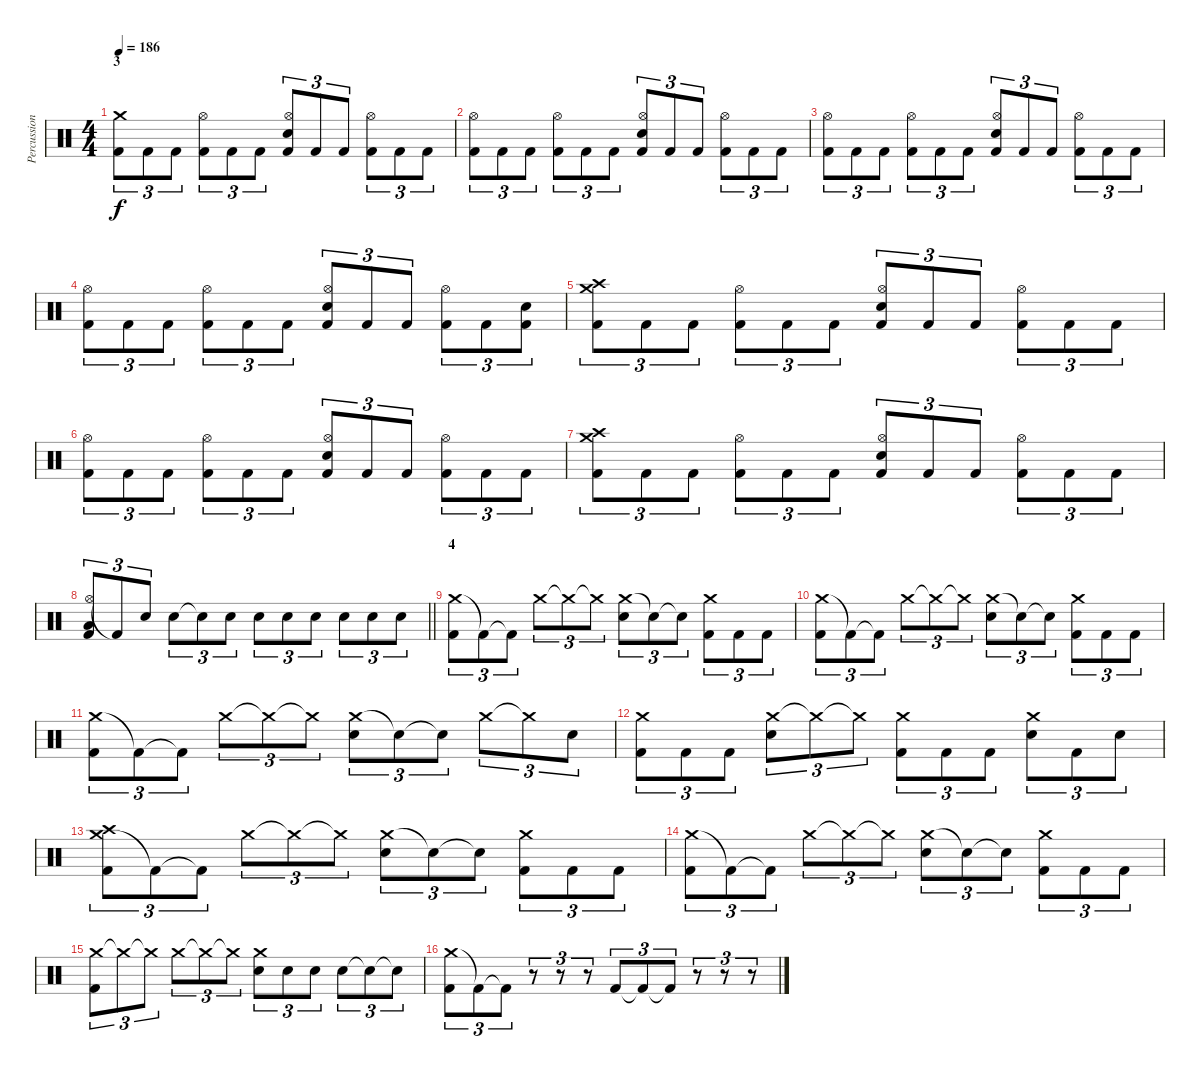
\track ("Percussion" "Percussion") {instrument percussion}
\staff {score}
\articulation defaults
\ts (4 4)
\section ("" "3")
\tempo 186
\clef neutral
\ks c
("Crash medium (hit)" "Kick (hit) 2").8{tu (3 2) dy f} "Kick (hit) 2".8{tu (3 2)} "Kick (hit) 2".8{tu (3 2)} ("Hi-Hat (open)" "Kick (hit) 2").8{tu (3 2)} "Kick (hit) 2".8{tu (3 2)} "Kick (hit) 2".8{tu (3 2)} ("Hi-Hat (open)" "Electric Snare (hit)" "Kick (hit) 2").8{tu (3 2)} "Kick (hit) 2".8{tu (3 2)} "Kick (hit) 2".8{tu (3 2)} ("Hi-Hat (open)" "Kick (hit) 2").8{tu (3 2)} "Kick (hit) 2".8{tu (3 2)} "Kick (hit) 2".8{tu (3 2)} |
("Hi-Hat (open)" "Kick (hit) 2").8{tu (3 2)} "Kick (hit) 2".8{tu (3 2)} "Kick (hit) 2".8{tu (3 2)} ("Hi-Hat (open)" "Kick (hit) 2").8{tu (3 2)} "Kick (hit) 2".8{tu (3 2)} "Kick (hit) 2".8{tu (3 2)} ("Hi-Hat (open)" "Electric Snare (hit)" "Kick (hit) 2").8{tu (3 2)} "Kick (hit) 2".8{tu (3 2)} "Kick (hit) 2".8{tu (3 2)} ("Hi-Hat (open)" "Kick (hit) 2").8{tu (3 2)} "Kick (hit) 2".8{tu (3 2)} "Kick (hit) 2".8{tu (3 2)} |
("Hi-Hat (open)" "Kick (hit) 2").8{tu (3 2)} "Kick (hit) 2".8{tu (3 2)} "Kick (hit) 2".8{tu (3 2)} ("Hi-Hat (open)" "Kick (hit) 2").8{tu (3 2)} "Kick (hit) 2".8{tu (3 2)} "Kick (hit) 2".8{tu (3 2)} ("Hi-Hat (open)" "Electric Snare (hit)" "Kick (hit) 2").8{tu (3 2)} "Kick (hit) 2".8{tu (3 2)} "Kick (hit) 2".8{tu (3 2)} ("Hi-Hat (open)" "Kick (hit) 2").8{tu (3 2)} "Kick (hit) 2".8{tu (3 2)} "Kick (hit) 2".8{tu (3 2)} |
("Hi-Hat (open)" "Kick (hit) 2").8{tu (3 2)} "Kick (hit) 2".8{tu (3 2)} "Kick (hit) 2".8{tu (3 2)} ("Hi-Hat (open)" "Kick (hit) 2").8{tu (3 2)} "Kick (hit) 2".8{tu (3 2)} "Kick (hit) 2".8{tu (3 2)} ("Hi-Hat (open)" "Electric Snare (hit)" "Kick (hit) 2").8{tu (3 2)} "Kick (hit) 2".8{tu (3 2)} "Kick (hit) 2".8{tu (3 2)} ("Hi-Hat (open)" "Kick (hit) 2").8{tu (3 2)} "Kick (hit) 2".8{tu (3 2)} ("Electric Snare (hit)" "Kick (hit) 2").8{tu (3 2)} |
("Crash medium (hit)" "Crash high (hit)" "Kick (hit) 2").8{tu (3 2)} "Kick (hit) 2".8{tu (3 2)} "Kick (hit) 2".8{tu (3 2)} ("Hi-Hat (open)" "Kick (hit) 2").8{tu (3 2)} "Kick (hit) 2".8{tu (3 2)} "Kick (hit) 2".8{tu (3 2)} ("Hi-Hat (open)" "Electric Snare (hit)" "Kick (hit) 2").8{tu (3 2)} "Kick (hit) 2".8{tu (3 2)} "Kick (hit) 2".8{tu (3 2)} ("Hi-Hat (open)" "Kick (hit) 2").8{tu (3 2)} "Kick (hit) 2".8{tu (3 2)} "Kick (hit) 2".8{tu (3 2)} |
("Hi-Hat (open)" "Kick (hit) 2").8{tu (3 2)} "Kick (hit) 2".8{tu (3 2)} "Kick (hit) 2".8{tu (3 2)} ("Hi-Hat (open)" "Kick (hit) 2").8{tu (3 2)} "Kick (hit) 2".8{tu (3 2)} "Kick (hit) 2".8{tu (3 2)} ("Hi-Hat (open)" "Electric Snare (hit)" "Kick (hit) 2").8{tu (3 2)} "Kick (hit) 2".8{tu (3 2)} "Kick (hit) 2".8{tu (3 2)} ("Hi-Hat (open)" "Kick (hit) 2").8{tu (3 2)} "Kick (hit) 2".8{tu (3 2)} "Kick (hit) 2".8{tu (3 2)} |
("Crash medium (hit)" "Crash high (hit)" "Kick (hit) 2").8{tu (3 2)} "Kick (hit) 2".8{tu (3 2)} "Kick (hit) 2".8{tu (3 2)} ("Hi-Hat (open)" "Kick (hit) 2").8{tu (3 2)} "Kick (hit) 2".8{tu (3 2)} "Kick (hit) 2".8{tu (3 2)} ("Hi-Hat (open)" "Electric Snare (hit)" "Kick (hit) 2").8{tu (3 2)} "Kick (hit) 2".8{tu (3 2)} "Kick (hit) 2".8{tu (3 2)} ("Hi-Hat (open)" "Kick (hit) 2").8{tu (3 2)} "Kick (hit) 2".8{tu (3 2)} "Kick (hit) 2".8{tu (3 2)} |
\barLineRight lightlight
("Hi-Hat (open)" "Low Floor Tom (hit)" "Kick (hit) 2").8{tu (3 2)} "Kick (hit) 2"{t}.8{tu (3 2)} "Electric Snare (hit)".8{tu (3 2)} "Electric Snare (hit)".8{tu (3 2)} "Electric Snare (hit)"{t}.8{tu (3 2)} "Electric Snare (hit)".8{tu (3 2)} "Electric Snare (hit)".8{tu (3 2)} "Electric Snare (hit)".8{tu (3 2)} "Electric Snare (hit)".8{tu (3 2)} "Electric Snare (hit)".8{tu (3 2)} "Electric Snare (hit)".8{tu (3 2)} "Electric Snare (hit)".8{tu (3 2)} |
\section ("" "4")
("Crash medium (hit)" "Kick (hit) 2").8{tu (3 2)} "Kick (hit) 2"{t}.8{tu (3 2)} "Kick (hit) 2"{t}.8{tu (3 2)} "Crash medium (hit)".8{tu (3 2)} "Crash medium (hit)"{t}.8{tu (3 2)} "Crash medium (hit)"{t}.8{tu (3 2)} ("Crash medium (hit)" "Electric Snare (hit)").8{tu (3 2)} "Electric Snare (hit)"{t}.8{tu (3 2)} "Electric Snare (hit)"{t}.8{tu (3 2)} ("Crash medium (hit)" "Kick (hit) 2").8{tu (3 2)} "Kick (hit) 2".8{tu (3 2)} "Kick (hit) 2".8{tu (3 2)} |
("Crash medium (hit)" "Kick (hit) 2").8{tu (3 2)} "Kick (hit) 2"{t}.8{tu (3 2)} "Kick (hit) 2"{t}.8{tu (3 2)} "Crash medium (hit)".8{tu (3 2)} "Crash medium (hit)"{t}.8{tu (3 2)} "Crash medium (hit)"{t}.8{tu (3 2)} ("Crash medium (hit)" "Electric Snare (hit)").8{tu (3 2)} "Electric Snare (hit)"{t}.8{tu (3 2)} "Electric Snare (hit)"{t}.8{tu (3 2)} ("Crash medium (hit)" "Kick (hit) 2").8{tu (3 2)} "Kick (hit) 2".8{tu (3 2)} "Kick (hit) 2".8{tu (3 2)} |
("Crash medium (hit)" "Kick (hit) 2").8{tu (3 2)} "Kick (hit) 2"{t}.8{tu (3 2)} "Kick (hit) 2"{t}.8{tu (3 2)} "Crash medium (hit)".8{tu (3 2)} "Crash medium (hit)"{t}.8{tu (3 2)} "Crash medium (hit)"{t}.8{tu (3 2)} ("Crash medium (hit)" "Electric Snare (hit)").8{tu (3 2)} "Electric Snare (hit)"{t}.8{tu (3 2)} "Electric Snare (hit)"{t}.8{tu (3 2)} "Crash medium (hit)".8{tu (3 2)} "Crash medium (hit)"{t}.8{tu (3 2)} "Electric Snare (hit)".8{tu (3 2)} |
("Crash medium (hit)" "Kick (hit) 2").8{tu (3 2)} "Kick (hit) 2".8{tu (3 2)} "Kick (hit) 2".8{tu (3 2)} ("Crash medium (hit)" "Electric Snare (hit)").8{tu (3 2)} "Crash medium (hit)"{t}.8{tu (3 2)} "Crash medium (hit)"{t}.8{tu (3 2)} ("Crash medium (hit)" "Kick (hit) 2").8{tu (3 2)} "Kick (hit) 2".8{tu (3 2)} "Kick (hit) 2".8{tu (3 2)} ("Crash medium (hit)" "Electric Snare (hit)").8{tu (3 2)} "Kick (hit) 2".8{tu (3 2)} "Electric Snare (hit)".8{tu (3 2)} |
("Crash medium (hit)" "Crash high (hit)" "Kick (hit) 2").8{tu (3 2)} "Kick (hit) 2"{t}.8{tu (3 2)} "Kick (hit) 2"{t}.8{tu (3 2)} "Crash medium (hit)".8{tu (3 2)} "Crash medium (hit)"{t}.8{tu (3 2)} "Crash medium (hit)"{t}.8{tu (3 2)} ("Crash medium (hit)" "Electric Snare (hit)").8{tu (3 2)} "Electric Snare (hit)"{t}.8{tu (3 2)} "Electric Snare (hit)"{t}.8{tu (3 2)} ("Crash medium (hit)" "Kick (hit) 2").8{tu (3 2)} "Kick (hit) 2".8{tu (3 2)} "Kick (hit) 2".8{tu (3 2)} |
("Crash medium (hit)" "Kick (hit) 2").8{tu (3 2)} "Kick (hit) 2"{t}.8{tu (3 2)} "Kick (hit) 2"{t}.8{tu (3 2)} "Crash medium (hit)".8{tu (3 2)} "Crash medium (hit)"{t}.8{tu (3 2)} "Crash medium (hit)"{t}.8{tu (3 2)} ("Crash medium (hit)" "Electric Snare (hit)").8{tu (3 2)} "Electric Snare (hit)"{t}.8{tu (3 2)} "Electric Snare (hit)"{t}.8{tu (3 2)} ("Crash medium (hit)" "Kick (hit) 2").8{tu (3 2)} "Kick (hit) 2".8{tu (3 2)} "Kick (hit) 2".8{tu (3 2)} |
("Crash medium (hit)" "Kick (hit) 2").8{tu (3 2)} "Crash medium (hit)"{t}.8{tu (3 2)} "Crash medium (hit)"{t}.8{tu (3 2)} "Crash medium (hit)".8{tu (3 2)} "Crash medium (hit)"{t}.8{tu (3 2)} "Crash medium (hit)"{t}.8{tu (3 2)} ("Crash medium (hit)" "Electric Snare (hit)").8{tu (3 2)} "Electric Snare (hit)".8{tu (3 2)} "Electric Snare (hit)".8{tu (3 2)} "Electric Snare (hit)".8{tu (3 2)} "Electric Snare (hit)"{t}.8{tu (3 2)} "Electric Snare (hit)"{t}.8{tu (3 2)} |
("Crash medium (hit)" "Kick (hit) 2").8{tu (3 2)} "Kick (hit) 2"{t}.8{tu (3 2) volume 0} "Kick (hit) 2"{t}.8{tu (3 2)} r.8{tu (3 2)} r.8{tu (3 2)} r.8{tu (3 2) volume 13} "Kick (hit) 2".8{tu (3 2)} "Kick (hit) 2"{t}.8{tu (3 2)} "Kick (hit) 2"{t}.8{tu (3 2)} r.8{tu (3 2)} r.8{tu (3 2)} r.8{tu (3 2)}
